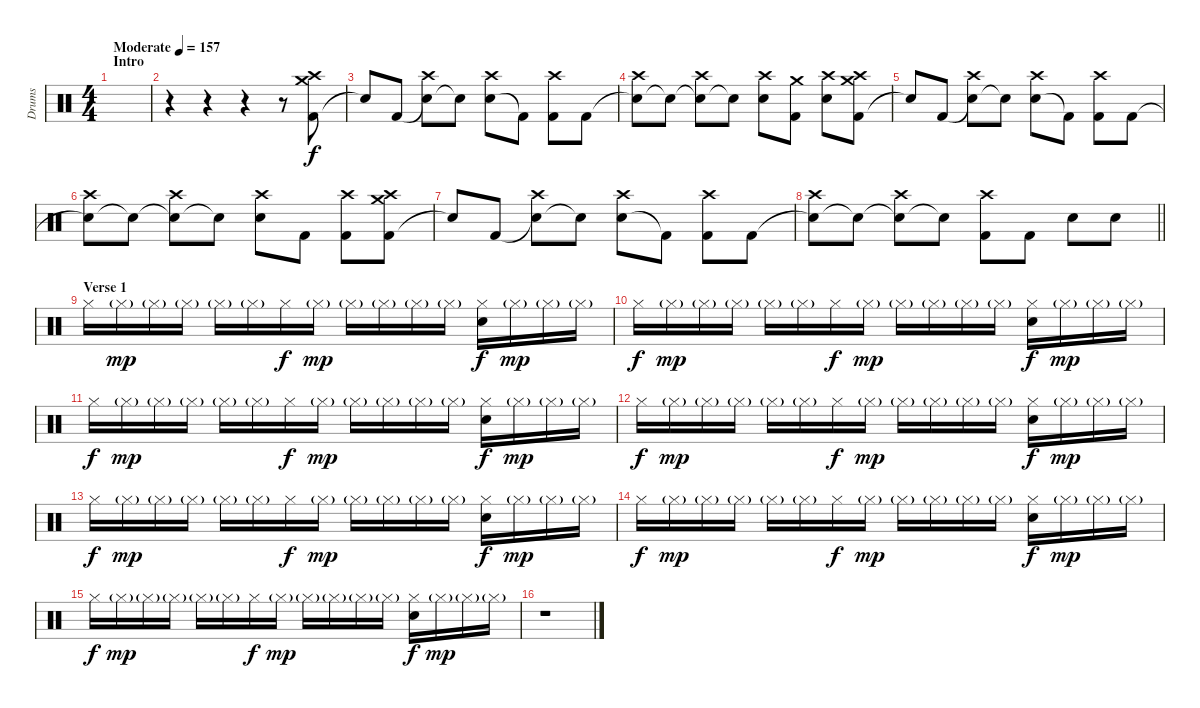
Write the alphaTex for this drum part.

\track ("Drums" "Drums") {instrument percussion}
\staff {score}
\articulation defaults
\ts (4 4)
\section ("" "Intro")
\tempo (157 "Moderate")
\clef neutral
\ks c
|
r.4 r.4 r.4 r.8 ("Kick (hit) 2" "Crash medium (hit)" "Crash high (hit)").8 |
"Snare (hit)"{t}.8 "Kick (hit) 2".8 ("Snare (hit)"{t} "Crash high (hit)").8 "Electric Snare (hit)"{t}.8 ("Electric Snare (hit)" "Crash high (hit)").8 "Kick (hit) 2"{t}.8 ("Kick (hit) 2" "Crash high (hit)").8 "Kick (hit) 2".8 |
("Electric Snare (hit)"{t} "Crash high (hit)").8 "Snare (hit)"{t}.8 ("Snare (hit)"{t} "Crash high (hit)").8 "Snare (hit)"{t}.8 ("Electric Snare (hit)" "Crash high (hit)").8 ("Kick (hit) 2" "Crash medium (hit)").8 ("Electric Snare (hit)" "Crash high (hit)").8 ("Kick (hit) 2" "Crash medium (hit)" "Crash high (hit)").8 |
"Snare (hit)"{t}.8 "Kick (hit) 2".8 ("Snare (hit)"{t} "Crash high (hit)").8 "Electric Snare (hit)"{t}.8 ("Electric Snare (hit)" "Crash high (hit)").8 "Kick (hit) 2"{t}.8 ("Kick (hit) 2" "Crash high (hit)").8 "Kick (hit) 2".8 |
("Electric Snare (hit)"{t} "Crash high (hit)").8 "Snare (hit)"{t}.8 ("Snare (hit)"{t} "Crash high (hit)").8 "Snare (hit)"{t}.8 ("Electric Snare (hit)" "Crash high (hit)").8 "Kick (hit) 2".8 ("Kick (hit) 2" "Crash high (hit)").8 ("Kick (hit) 2" "Crash medium (hit)" "Crash high (hit)").8 |
"Snare (hit)"{t}.8 "Kick (hit) 2".8 ("Snare (hit)"{t} "Crash high (hit)").8 "Electric Snare (hit)"{t}.8 ("Electric Snare (hit)" "Crash high (hit)").8 "Kick (hit) 2"{t}.8 ("Kick (hit) 2" "Crash high (hit)").8 "Kick (hit) 2".8 |
\barLineRight lightlight
("Electric Snare (hit)"{t} "Crash high (hit)").8 "Snare (hit)"{t}.8 ("Snare (hit)"{t} "Crash high (hit)").8 "Snare (hit)"{t}.8 ("Kick (hit) 2" "Crash high (hit)").8 "Kick (hit) 2".8 "Electric Snare (hit)".8 "Electric Snare (hit)".8 |
\section ("" "Verse 1")
"Hi-Hat (closed)".16 "Hi-Hat (closed)"{g}.16{dy mp} "Hi-Hat (closed)"{g}.16 "Hi-Hat (closed)"{g}.16 "Hi-Hat (closed)"{g}.16 "Hi-Hat (closed)"{g}.16 "Hi-Hat (closed)".16{dy f} "Hi-Hat (closed)"{g}.16{dy mp} "Hi-Hat (closed)"{g}.16 "Hi-Hat (closed)"{g}.16 "Hi-Hat (closed)"{g}.16 "Hi-Hat (closed)"{g}.16 ("Hi-Hat (closed)" "Electric Snare (hit)").16{dy f} "Hi-Hat (closed)"{g}.16{dy mp} "Hi-Hat (closed)"{g}.16 "Hi-Hat (closed)"{g}.16 |
"Hi-Hat (closed)".16{dy f} "Hi-Hat (closed)"{g}.16{dy mp} "Hi-Hat (closed)"{g}.16 "Hi-Hat (closed)"{g}.16 "Hi-Hat (closed)"{g}.16 "Hi-Hat (closed)"{g}.16 "Hi-Hat (closed)".16{dy f} "Hi-Hat (closed)"{g}.16{dy mp} "Hi-Hat (closed)"{g}.16 "Hi-Hat (closed)"{g}.16 "Hi-Hat (closed)"{g}.16 "Hi-Hat (closed)"{g}.16 ("Hi-Hat (closed)" "Electric Snare (hit)").16{dy f} "Hi-Hat (closed)"{g}.16{dy mp} "Hi-Hat (closed)"{g}.16 "Hi-Hat (closed)"{g}.16 |
"Hi-Hat (closed)".16{dy f} "Hi-Hat (closed)"{g}.16{dy mp} "Hi-Hat (closed)"{g}.16 "Hi-Hat (closed)"{g}.16 "Hi-Hat (closed)"{g}.16 "Hi-Hat (closed)"{g}.16 "Hi-Hat (closed)".16{dy f} "Hi-Hat (closed)"{g}.16{dy mp} "Hi-Hat (closed)"{g}.16 "Hi-Hat (closed)"{g}.16 "Hi-Hat (closed)"{g}.16 "Hi-Hat (closed)"{g}.16 ("Hi-Hat (closed)" "Electric Snare (hit)").16{dy f} "Hi-Hat (closed)"{g}.16{dy mp} "Hi-Hat (closed)"{g}.16 "Hi-Hat (closed)"{g}.16 |
"Hi-Hat (closed)".16{dy f} "Hi-Hat (closed)"{g}.16{dy mp} "Hi-Hat (closed)"{g}.16 "Hi-Hat (closed)"{g}.16 "Hi-Hat (closed)"{g}.16 "Hi-Hat (closed)"{g}.16 "Hi-Hat (closed)".16{dy f} "Hi-Hat (closed)"{g}.16{dy mp} "Hi-Hat (closed)"{g}.16 "Hi-Hat (closed)"{g}.16 "Hi-Hat (closed)"{g}.16 "Hi-Hat (closed)"{g}.16 ("Hi-Hat (closed)" "Electric Snare (hit)").16{dy f} "Hi-Hat (closed)"{g}.16{dy mp} "Hi-Hat (closed)"{g}.16 "Hi-Hat (closed)"{g}.16 |
"Hi-Hat (closed)".16{dy f} "Hi-Hat (closed)"{g}.16{dy mp} "Hi-Hat (closed)"{g}.16 "Hi-Hat (closed)"{g}.16 "Hi-Hat (closed)"{g}.16 "Hi-Hat (closed)"{g}.16 "Hi-Hat (closed)".16{dy f} "Hi-Hat (closed)"{g}.16{dy mp} "Hi-Hat (closed)"{g}.16 "Hi-Hat (closed)"{g}.16 "Hi-Hat (closed)"{g}.16 "Hi-Hat (closed)"{g}.16 ("Hi-Hat (closed)" "Electric Snare (hit)").16{dy f} "Hi-Hat (closed)"{g}.16{dy mp} "Hi-Hat (closed)"{g}.16 "Hi-Hat (closed)"{g}.16 |
"Hi-Hat (closed)".16{dy f} "Hi-Hat (closed)"{g}.16{dy mp} "Hi-Hat (closed)"{g}.16 "Hi-Hat (closed)"{g}.16 "Hi-Hat (closed)"{g}.16 "Hi-Hat (closed)"{g}.16 "Hi-Hat (closed)".16{dy f} "Hi-Hat (closed)"{g}.16{dy mp} "Hi-Hat (closed)"{g}.16 "Hi-Hat (closed)"{g}.16 "Hi-Hat (closed)"{g}.16 "Hi-Hat (closed)"{g}.16 ("Hi-Hat (closed)" "Electric Snare (hit)").16{dy f} "Hi-Hat (closed)"{g}.16{dy mp} "Hi-Hat (closed)"{g}.16 "Hi-Hat (closed)"{g}.16 |
"Hi-Hat (closed)".16{dy f} "Hi-Hat (closed)"{g}.16{dy mp} "Hi-Hat (closed)"{g}.16 "Hi-Hat (closed)"{g}.16 "Hi-Hat (closed)"{g}.16 "Hi-Hat (closed)"{g}.16 "Hi-Hat (closed)".16{dy f} "Hi-Hat (closed)"{g}.16{dy mp} "Hi-Hat (closed)"{g}.16 "Hi-Hat (closed)"{g}.16 "Hi-Hat (closed)"{g}.16 "Hi-Hat (closed)"{g}.16 ("Hi-Hat (closed)" "Electric Snare (hit)").16{dy f} "Hi-Hat (closed)"{g}.16{dy mp} "Hi-Hat (closed)"{g}.16 "Hi-Hat (closed)"{g}.16 |
r.1
